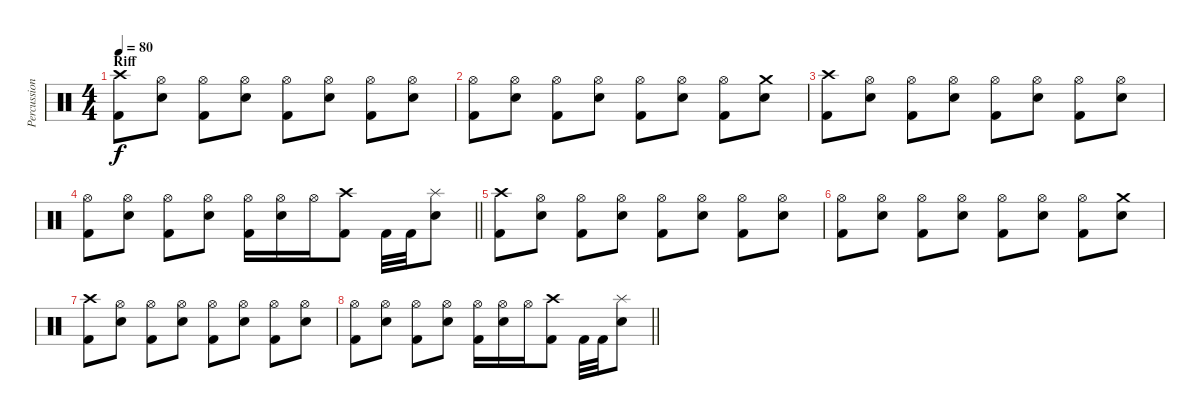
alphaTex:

\track ("Percussion" "Percussion") {instrument percussion}
\staff {score}
\articulation defaults
\ts (4 4)
\section ("" "Riff")
\tempo 80
\clef neutral
\ks c
("Crash high (hit)" "Kick (hit) 2").8{dy f} ("Hi-Hat (open)" "Snare (hit) 2").8 ("Hi-Hat (open)" "Kick (hit) 2").8 ("Hi-Hat (open)" "Snare (hit) 2").8 ("Hi-Hat (open)" "Kick (hit) 2").8 ("Hi-Hat (open)" "Snare (hit) 2").8 ("Hi-Hat (open)" "Kick (hit) 2").8 ("Hi-Hat (open)" "Snare (hit) 2").8 |
("Hi-Hat (open)" "Kick (hit) 2").8 ("Hi-Hat (open)" "Snare (hit) 2").8 ("Hi-Hat (open)" "Kick (hit) 2").8 ("Hi-Hat (open)" "Snare (hit) 2").8 ("Hi-Hat (open)" "Kick (hit) 2").8 ("Hi-Hat (open)" "Snare (hit) 2").8 ("Hi-Hat (open)" "Kick (hit) 2").8 ("Crash medium (hit)" "Snare (hit) 2").8 |
("Crash high (hit)" "Kick (hit) 2").8 ("Hi-Hat (open)" "Snare (hit) 2").8 ("Hi-Hat (open)" "Kick (hit) 2").8 ("Hi-Hat (open)" "Snare (hit) 2").8 ("Hi-Hat (open)" "Kick (hit) 2").8 ("Hi-Hat (open)" "Snare (hit) 2").8 ("Hi-Hat (open)" "Kick (hit) 2").8 ("Hi-Hat (open)" "Snare (hit) 2").8 |
\barLineRight lightlight
("Hi-Hat (open)" "Kick (hit) 2").8 ("Hi-Hat (open)" "Snare (hit) 2").8 ("Hi-Hat (open)" "Kick (hit) 2").8 ("Hi-Hat (open)" "Snare (hit) 2").8 ("Hi-Hat (open)" "Kick (hit) 2").16 ("Hi-Hat (open)" "Snare (hit) 2").16 "Hi-Hat (open)".16 ("Crash high (hit)" "Kick (hit) 2").8 "Kick (hit) 2".32 "Kick (hit) 2".32 ("Splash (hit)" "Snare (hit) 2").8 |
("Crash high (hit)" "Kick (hit) 2").8 ("Hi-Hat (open)" "Snare (hit) 2").8 ("Hi-Hat (open)" "Kick (hit) 2").8 ("Hi-Hat (open)" "Snare (hit) 2").8 ("Hi-Hat (open)" "Kick (hit) 2").8 ("Hi-Hat (open)" "Snare (hit) 2").8 ("Hi-Hat (open)" "Kick (hit) 2").8 ("Hi-Hat (open)" "Snare (hit) 2").8 |
("Hi-Hat (open)" "Kick (hit) 2").8 ("Hi-Hat (open)" "Snare (hit) 2").8 ("Hi-Hat (open)" "Kick (hit) 2").8 ("Hi-Hat (open)" "Snare (hit) 2").8 ("Hi-Hat (open)" "Kick (hit) 2").8 ("Hi-Hat (open)" "Snare (hit) 2").8 ("Hi-Hat (open)" "Kick (hit) 2").8 ("Crash medium (hit)" "Snare (hit) 2").8 |
("Crash high (hit)" "Kick (hit) 2").8 ("Hi-Hat (open)" "Snare (hit) 2").8 ("Hi-Hat (open)" "Kick (hit) 2").8 ("Hi-Hat (open)" "Snare (hit) 2").8 ("Hi-Hat (open)" "Kick (hit) 2").8 ("Hi-Hat (open)" "Snare (hit) 2").8 ("Hi-Hat (open)" "Kick (hit) 2").8 ("Hi-Hat (open)" "Snare (hit) 2").8 |
\barLineRight lightlight
("Hi-Hat (open)" "Kick (hit) 2").8 ("Hi-Hat (open)" "Snare (hit) 2").8 ("Hi-Hat (open)" "Kick (hit) 2").8 ("Hi-Hat (open)" "Snare (hit) 2").8 ("Hi-Hat (open)" "Kick (hit) 2").16 ("Hi-Hat (open)" "Snare (hit) 2").16 "Hi-Hat (open)".16 ("Crash high (hit)" "Kick (hit) 2").8 "Kick (hit) 2".32 "Kick (hit) 2".32 ("Splash (hit)" "Snare (hit) 2").8
